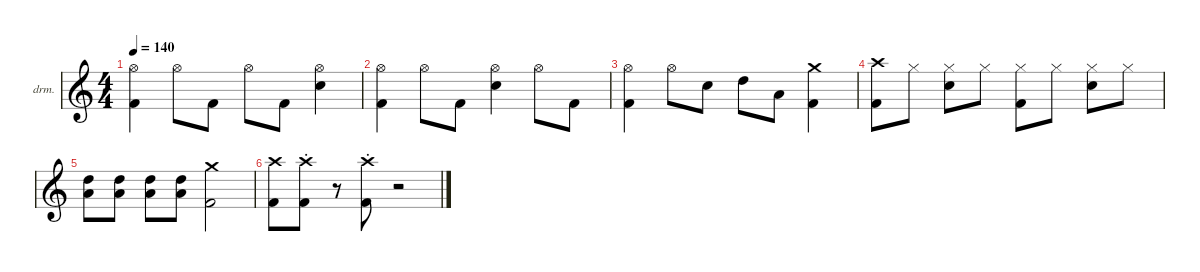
\defaultSystemsLayout 4
\hideDynamics
\bracketExtendMode nobrackets
\firstSystemTrackNameOrientation horizontal
\track ("Sepehr Tajbakhsh {Nick Menza}" "drm.") {instrument percussion}
\staff {score}
\articulation defaults
\ts (4 4)
\tempo 140
\clef g2
\ks c
("Hi-Hat (open)" "Kick (hit) 2").4{dy fff beam Down} "Hi-Hat (open)".8{dy f beam Down} "Kick (hit) 2".8{dy fff beam Down} "Hi-Hat (open)".8{dy f beam Down} "Kick (hit) 2".8{dy fff beam Down} ("Hi-Hat (open)" "Snare (hit) 2").4{dy f beam Down} |
("Hi-Hat (open)" "Kick (hit) 2").4{beam Down} "Hi-Hat (open)".8{beam Down} "Kick (hit) 2".8{dy fff beam Down} ("Hi-Hat (open)" "Snare (hit) 2").4{dy f beam Down} "Hi-Hat (open)".8{beam Down} "Kick (hit) 2".8{dy fff beam Down} |
("Hi-Hat (open)" "Kick (hit) 2").4{beam Down} "Hi-Hat (open)".8{dy f beam Down} "Snare (hit) 2".8{beam Down} "High Tom (hit)".8{beam Down} "Low Tom (hit)".8{beam Down} ("Crash medium (hit)" "Kick (hit) 2").4{beam Down} |
("Crash high (hit)" "Kick (hit) 2").8{beam Down} "Hi-Hat (closed)".8{beam Down} ("Hi-Hat (closed)" "Snare (hit) 2").8{beam Down} "Hi-Hat (closed)".8{beam Down} ("Hi-Hat (closed)" "Kick (hit) 2").8{beam Down} "Hi-Hat (closed)".8{beam Down} ("Hi-Hat (closed)" "Snare (hit) 2").8{beam Down} "Hi-Hat (closed)".8{beam Down} |
("Low Tom (hit)" "High Tom (hit)").8{beam Down} ("Low Tom (hit)" "High Tom (hit)").8{beam Down} ("Low Tom (hit)" "High Tom (hit)").8{beam Down} ("Low Tom (hit)" "High Tom (hit)").8{beam Down} ("Crash medium (hit)" "Kick (hit) 2").2{beam Down} |
("Crash high (hit)" "Kick (hit) 2").8{beam Down} ("Crash high (choke)" "Kick (hit) 2").8{beam Down} r.8{beam Down} ("Crash high (choke)" "Kick (hit) 2").8{beam Down} r.2{beam Down}
